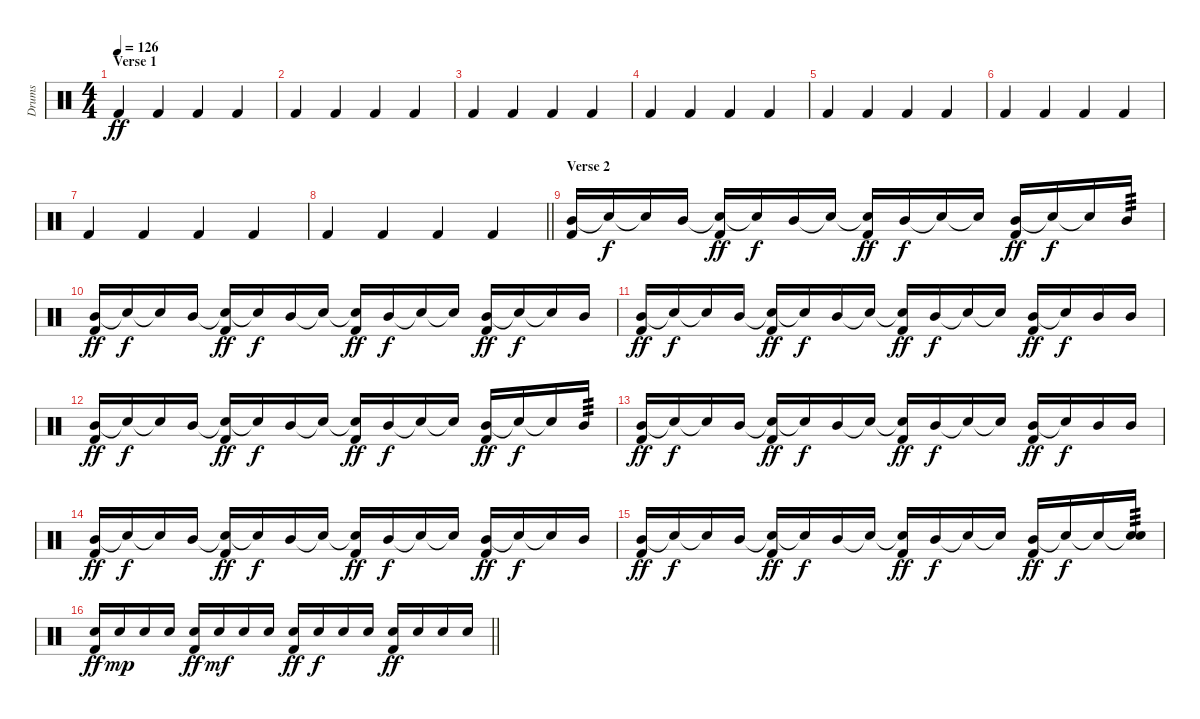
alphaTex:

\track ("Drums" "Drums") {instrument percussion}
\staff {score}
\articulation defaults
\ts (4 4)
\section ("" "Verse 1")
\tempo 126
\clef neutral
\ks c "Kick (hit) 2".4{dy ff} "Kick (hit) 2".4 "Kick (hit) 2".4 "Kick (hit) 2".4
|
"Kick (hit) 2".4 "Kick (hit) 2".4 "Kick (hit) 2".4 "Kick (hit) 2".4 |
"Kick (hit) 2".4 "Kick (hit) 2".4 "Kick (hit) 2".4 "Kick (hit) 2".4 |
"Kick (hit) 2".4 "Kick (hit) 2".4 "Kick (hit) 2".4 "Kick (hit) 2".4 |
"Kick (hit) 2".4 "Kick (hit) 2".4 "Kick (hit) 2".4 "Kick (hit) 2".4 |
"Kick (hit) 2".4 "Kick (hit) 2".4 "Kick (hit) 2".4 "Kick (hit) 2".4 |
"Kick (hit) 2".4 "Kick (hit) 2".4 "Kick (hit) 2".4 "Kick (hit) 2".4 |
\barLineRight lightlight "Kick (hit) 2".4 "Kick (hit) 2".4 "Kick (hit) 2".4 "Kick (hit) 2".4
|
\section ("" "Verse 2")
("Mid Tom (hit)" "Kick (hit) 2").16 "Snare (hit)"{t}.16{dy f} "Snare (hit)"{t}.16 "Mid Tom (hit)".16 ("Snare (hit)"{t} "Kick (hit) 2").16{dy ff} "Snare (hit)"{t}.16{dy f} "Mid Tom (hit)".16 "Snare (hit)"{t}.16 ("Snare (hit)"{t} "Kick (hit) 2").16{dy ff} "Mid Tom (hit)".16{dy f} "Snare (hit)"{t}.16 "Snare (hit)"{t}.16 ("Mid Tom (hit)" "Kick (hit) 2").16{dy ff} "Snare (hit)"{t}.16{dy f} "Snare (hit)"{t}.16 "Mid Tom (hit)".16{tp 3} |
("Mid Tom (hit)" "Kick (hit) 2").16{dy ff} "Snare (hit)"{t}.16{dy f} "Snare (hit)"{t}.16 "Mid Tom (hit)".16 ("Snare (hit)"{t} "Kick (hit) 2").16{dy ff} "Snare (hit)"{t}.16{dy f} "Mid Tom (hit)".16 "Snare (hit)"{t}.16 ("Snare (hit)"{t} "Kick (hit) 2").16{dy ff} "Mid Tom (hit)".16{dy f} "Snare (hit)"{t}.16 "Snare (hit)"{t}.16 ("Mid Tom (hit)" "Kick (hit) 2").16{dy ff} "Snare (hit)"{t}.16{dy f} "Snare (hit)"{t}.16 "Mid Tom (hit)".16 |
("Mid Tom (hit)" "Kick (hit) 2").16{dy ff} "Snare (hit)"{t}.16{dy f} "Snare (hit)"{t}.16 "Mid Tom (hit)".16 ("Snare (hit)"{t} "Kick (hit) 2").16{dy ff} "Snare (hit)"{t}.16{dy f} "Mid Tom (hit)".16 "Snare (hit)"{t}.16 ("Snare (hit)"{t} "Kick (hit) 2").16{dy ff} "Mid Tom (hit)".16{dy f} "Snare (hit)"{t}.16 "Snare (hit)"{t}.16 ("Mid Tom (hit)" "Kick (hit) 2").16{dy ff} "Snare (hit)"{t}.16{dy f} "Mid Tom (hit)".16 "Mid Tom (hit)".16 |
("Mid Tom (hit)" "Kick (hit) 2").16{dy ff} "Snare (hit)"{t}.16{dy f} "Snare (hit)"{t}.16 "Mid Tom (hit)".16 ("Snare (hit)"{t} "Kick (hit) 2").16{dy ff} "Snare (hit)"{t}.16{dy f} "Mid Tom (hit)".16 "Snare (hit)"{t}.16 ("Snare (hit)"{t} "Kick (hit) 2").16{dy ff} "Mid Tom (hit)".16{dy f} "Snare (hit)"{t}.16 "Snare (hit)"{t}.16 ("Mid Tom (hit)" "Kick (hit) 2").16{dy ff} "Snare (hit)"{t}.16{dy f} "Snare (hit)"{t}.16 "Mid Tom (hit)".16{tp 3} |
("Mid Tom (hit)" "Kick (hit) 2").16{dy ff} "Snare (hit)"{t}.16{dy f} "Snare (hit)"{t}.16 "Mid Tom (hit)".16 ("Snare (hit)"{t} "Kick (hit) 2").16{dy ff} "Snare (hit)"{t}.16{dy f} "Mid Tom (hit)".16 "Snare (hit)"{t}.16 ("Snare (hit)"{t} "Kick (hit) 2").16{dy ff} "Mid Tom (hit)".16{dy f} "Snare (hit)"{t}.16 "Snare (hit)"{t}.16 ("Mid Tom (hit)" "Kick (hit) 2").16{dy ff} "Snare (hit)"{t}.16{dy f} "Mid Tom (hit)".16 "Mid Tom (hit)".16 |
("Mid Tom (hit)" "Kick (hit) 2").16{dy ff} "Snare (hit)"{t}.16{dy f} "Snare (hit)"{t}.16 "Mid Tom (hit)".16 ("Snare (hit)"{t} "Kick (hit) 2").16{dy ff} "Snare (hit)"{t}.16{dy f} "Mid Tom (hit)".16 "Snare (hit)"{t}.16 ("Snare (hit)"{t} "Kick (hit) 2").16{dy ff} "Mid Tom (hit)".16{dy f} "Snare (hit)"{t}.16 "Snare (hit)"{t}.16 ("Mid Tom (hit)" "Kick (hit) 2").16{dy ff} "Snare (hit)"{t}.16{dy f} "Snare (hit)"{t}.16 "Mid Tom (hit)".16 |
("Mid Tom (hit)" "Kick (hit) 2").16{dy ff} "Snare (hit)"{t}.16{dy f} "Snare (hit)"{t}.16 "Mid Tom (hit)".16 ("Snare (hit)"{t} "Kick (hit) 2").16{dy ff} "Snare (hit)"{t}.16{dy f} "Mid Tom (hit)".16 "Snare (hit)"{t}.16 ("Snare (hit)"{t} "Kick (hit) 2").16{dy ff} "Mid Tom (hit)".16{dy f} "Snare (hit)"{t}.16 "Snare (hit)"{t}.16 ("Mid Tom (hit)" "Kick (hit) 2").16{dy ff} "Snare (hit)"{t}.16{dy f} "Snare (hit)"{t}.16 ("Snare (hit)"{t} "Snare (hit) 2").16{tp 3} |
\barLineRight lightlight
("Snare (hit) 2" "Kick (hit) 2").16{dy ff} "Snare (hit) 2".16{dy mp} "Snare (hit) 2".16 "Snare (hit) 2".16 ("Snare (hit) 2" "Kick (hit) 2").16{dy ff} "Snare (hit) 2".16{dy mf} "Snare (hit) 2".16 "Snare (hit) 2".16 ("Snare (hit) 2" "Kick (hit) 2").16{dy ff} "Snare (hit) 2".16{dy f} "Snare (hit) 2".16 "Snare (hit) 2".16 ("Snare (hit) 2" "Kick (hit) 2").16{dy ff} "Snare (hit) 2".16 "Snare (hit) 2".16 "Snare (hit) 2".16
